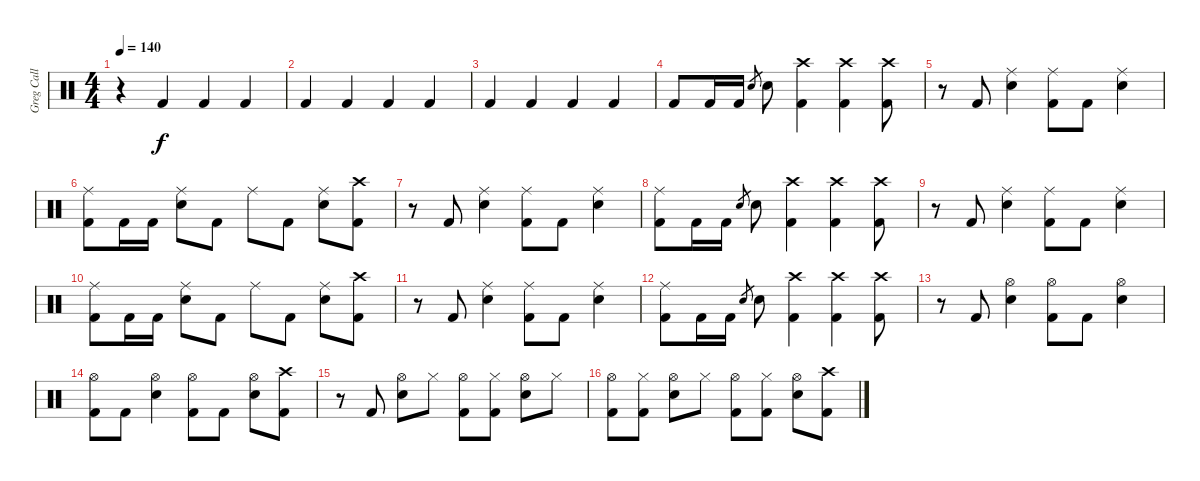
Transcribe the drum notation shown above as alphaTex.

\track ("Greg Call (Drums)" "Greg Call ") {instrument percussion}
\staff {score}
\articulation defaults
\ts (4 4)
\tempo 140
\clef neutral
\ks c
r.4{dy f} "Kick (hit) 2".4 "Kick (hit) 2".4 "Kick (hit) 2".4 |
"Kick (hit) 2".4 "Kick (hit) 2".4 "Kick (hit) 2".4 "Kick (hit) 2".4 |
"Kick (hit) 2".4 "Kick (hit) 2".4 "Kick (hit) 2".4 "Kick (hit) 2".4 |
"Kick (hit) 2".8 "Kick (hit) 2".16 "Kick (hit) 2".16 "Snare (hit) 2".8{gr} "Snare (hit) 2".8 ("Crash high (hit)" "Kick (hit) 2").4 ("Crash high (hit)" "Kick (hit) 2").4 ("Crash high (hit)" "Kick (hit) 2").8 |
r.8 "Kick (hit) 2".8 ("Ride (middle)" "Snare (hit) 2").4 ("Ride (middle)" "Kick (hit) 2").8 "Kick (hit) 2".8 ("Ride (middle)" "Snare (hit) 2").4 |
("Ride (middle)" "Kick (hit) 2").8 "Kick (hit) 2".16 "Kick (hit) 2".16 ("Ride (middle)" "Snare (hit) 2").8 "Kick (hit) 2".8 "Ride (middle)".8 "Kick (hit) 2".8 ("Ride (middle)" "Snare (hit) 2").8 ("Crash high (hit)" "Kick (hit) 2").8 |
r.8 "Kick (hit) 2".8 ("Ride (middle)" "Snare (hit) 2").4 ("Ride (middle)" "Kick (hit) 2").8 "Kick (hit) 2".8 ("Ride (middle)" "Snare (hit) 2").4 |
("Ride (middle)" "Kick (hit) 2").8 "Kick (hit) 2".16 "Kick (hit) 2".16 "Snare (hit) 2".8{gr} "Snare (hit) 2".8 ("Crash high (hit)" "Kick (hit) 2").4 ("Crash high (hit)" "Kick (hit) 2").4 ("Crash high (hit)" "Kick (hit) 2").8 |
r.8 "Kick (hit) 2".8 ("Ride (middle)" "Snare (hit) 2").4 ("Ride (middle)" "Kick (hit) 2").8 "Kick (hit) 2".8 ("Ride (middle)" "Snare (hit) 2").4 |
("Ride (middle)" "Kick (hit) 2").8 "Kick (hit) 2".16 "Kick (hit) 2".16 ("Ride (middle)" "Snare (hit) 2").8 "Kick (hit) 2".8 "Ride (middle)".8 "Kick (hit) 2".8 ("Ride (middle)" "Snare (hit) 2").8 ("Crash high (hit)" "Kick (hit) 2").8 |
r.8 "Kick (hit) 2".8 ("Ride (middle)" "Snare (hit) 2").4 ("Ride (middle)" "Kick (hit) 2").8 "Kick (hit) 2".8 ("Ride (middle)" "Snare (hit) 2").4 |
("Ride (middle)" "Kick (hit) 2").8 "Kick (hit) 2".16 "Kick (hit) 2".16 "Snare (hit) 2".8{gr} "Snare (hit) 2".8 ("Crash high (hit)" "Kick (hit) 2").4 ("Crash high (hit)" "Kick (hit) 2").4 ("Crash high (hit)" "Kick (hit) 2").8 |
r.8 "Kick (hit) 2".8 ("Hi-Hat (open)" "Snare (hit) 2").4 ("Hi-Hat (open)" "Kick (hit) 2").8 "Kick (hit) 2".8 ("Hi-Hat (open)" "Snare (hit) 2").4 |
("Hi-Hat (open)" "Kick (hit) 2").8 "Kick (hit) 2".8 ("Hi-Hat (open)" "Snare (hit) 2").4 ("Hi-Hat (open)" "Kick (hit) 2").8 "Kick (hit) 2".8 ("Hi-Hat (open)" "Snare (hit) 2").8 ("Crash high (hit)" "Kick (hit) 2").8 |
r.8 "Kick (hit) 2".8 ("Hi-Hat (open)" "Snare (hit) 2").8 "Hi-Hat (closed)".8 ("Hi-Hat (open)" "Kick (hit) 2").8 ("Hi-Hat (closed)" "Kick (hit) 2").8 ("Hi-Hat (open)" "Snare (hit) 2").8 "Hi-Hat (closed)".8 |
("Hi-Hat (open)" "Kick (hit) 2").8 ("Hi-Hat (closed)" "Kick (hit) 2").8 ("Hi-Hat (open)" "Snare (hit) 2").8 "Hi-Hat (closed)".8 ("Hi-Hat (open)" "Kick (hit) 2").8 ("Hi-Hat (closed)" "Kick (hit) 2").8 ("Hi-Hat (open)" "Snare (hit) 2").8 ("Crash high (hit)" "Kick (hit) 2").8
